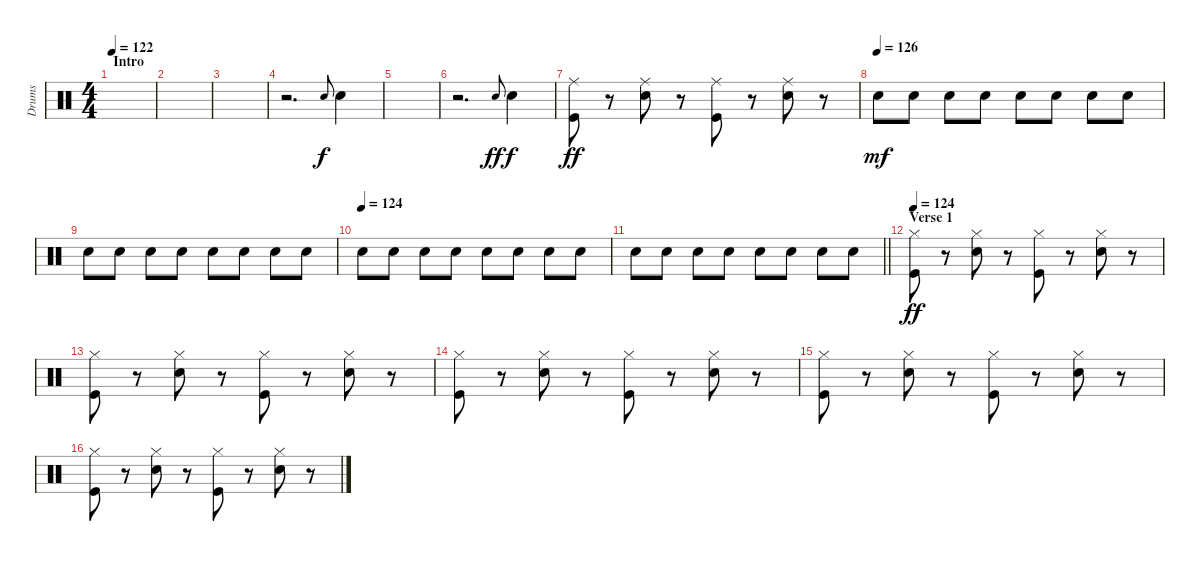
\track ("Drums" "Drums") {instrument percussion}
\staff {score}
\articulation defaults
\ts (4 4)
\section ("" "Intro")
\tempo 122
\clef neutral
\ks c
|
|
|
r.2{d} "Snare (hit) 2".8{gr onbeat} "Snare (hit) 2".4{dy f} |
|
r.2{d} "Snare (hit) 2".8{gr onbeat dy ff} "Snare (hit) 2".4{dy f} |
("Ride (middle)" "Kick (hit)").8{dy ff} r.8 ("Ride (middle)" "Snare (hit) 2").8 r.8 ("Ride (middle)" "Kick (hit)").8 r.8 ("Ride (middle)" "Snare (hit) 2").8 r.8 |
\tempo (126)
"Snare (hit) 2".8{dy mf} "Snare (hit) 2".8 "Snare (hit) 2".8 "Snare (hit) 2".8 "Snare (hit) 2".8 "Snare (hit) 2".8 "Snare (hit) 2".8 "Snare (hit) 2".8 |
"Snare (hit) 2".8 "Snare (hit) 2".8 "Snare (hit) 2".8 "Snare (hit) 2".8 "Snare (hit) 2".8 "Snare (hit) 2".8 "Snare (hit) 2".8 "Snare (hit) 2".8 |
\tempo (124)
"Snare (hit) 2".8 "Snare (hit) 2".8 "Snare (hit) 2".8 "Snare (hit) 2".8 "Snare (hit) 2".8 "Snare (hit) 2".8 "Snare (hit) 2".8 "Snare (hit) 2".8 |
\barLineRight lightlight "Snare (hit) 2".8 "Snare (hit) 2".8 "Snare (hit) 2".8 "Snare (hit) 2".8 "Snare (hit) 2".8 "Snare (hit) 2".8 "Snare (hit) 2".8 "Snare (hit) 2".8
|
\section ("" "Verse 1")
\tempo 124
("Hi-Hat (closed)" "Kick (hit)").8{dy ff} r.8 ("Hi-Hat (closed)" "Snare (hit) 2").8 r.8 ("Hi-Hat (closed)" "Kick (hit)").8 r.8 ("Hi-Hat (closed)" "Snare (hit) 2").8 r.8 |
("Hi-Hat (closed)" "Kick (hit)").8 r.8 ("Hi-Hat (closed)" "Snare (hit) 2").8 r.8 ("Hi-Hat (closed)" "Kick (hit)").8 r.8 ("Hi-Hat (closed)" "Snare (hit) 2").8 r.8 |
("Hi-Hat (closed)" "Kick (hit)").8 r.8 ("Hi-Hat (closed)" "Snare (hit) 2").8 r.8 ("Hi-Hat (closed)" "Kick (hit)").8 r.8 ("Hi-Hat (closed)" "Snare (hit) 2").8 r.8 |
("Hi-Hat (closed)" "Kick (hit)").8 r.8 ("Hi-Hat (closed)" "Snare (hit) 2").8 r.8 ("Hi-Hat (closed)" "Kick (hit)").8 r.8 ("Hi-Hat (closed)" "Snare (hit) 2").8 r.8 |
("Hi-Hat (closed)" "Kick (hit)").8 r.8 ("Hi-Hat (closed)" "Snare (hit) 2").8 r.8 ("Hi-Hat (closed)" "Kick (hit)").8 r.8 ("Hi-Hat (closed)" "Snare (hit) 2").8 r.8
